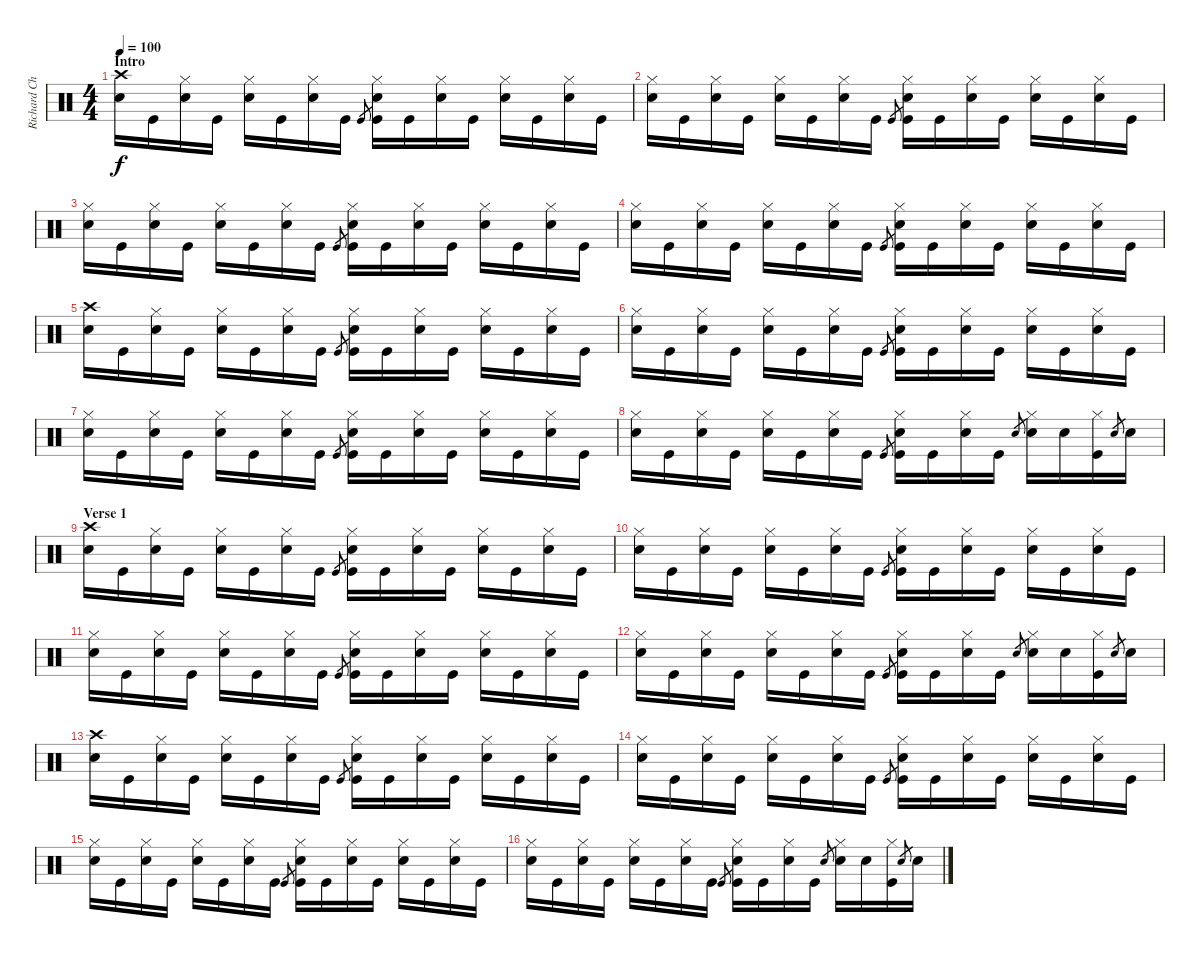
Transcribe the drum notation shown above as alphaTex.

\track ("Richard Chadwick - Drums" "Richard Ch") {instrument percussion}
\staff {score}
\articulation defaults
\ts (4 4)
\section ("" "Intro")
\tempo 100
\clef neutral
\ks c
("Crash high (hit)" "Snare (hit) 2").16{dy f} "Kick (hit)".16 ("Hi-Hat (closed)" "Snare (hit) 2").16 "Kick (hit)".16 ("Hi-Hat (closed)" "Snare (hit) 2").16 "Kick (hit)".16 ("Hi-Hat (closed)" "Snare (hit) 2").16 "Kick (hit)".16 "Kick (hit)".8{gr} ("Hi-Hat (closed)" "Snare (hit) 2" "Kick (hit)").16 "Kick (hit)".16 ("Hi-Hat (closed)" "Snare (hit) 2").16 "Kick (hit)".16 ("Hi-Hat (closed)" "Snare (hit) 2").16 "Kick (hit)".16 ("Hi-Hat (closed)" "Snare (hit) 2").16 "Kick (hit)".16 |
("Hi-Hat (closed)" "Snare (hit) 2").16 "Kick (hit)".16 ("Hi-Hat (closed)" "Snare (hit) 2").16 "Kick (hit)".16 ("Hi-Hat (closed)" "Snare (hit) 2").16 "Kick (hit)".16 ("Hi-Hat (closed)" "Snare (hit) 2").16 "Kick (hit)".16 "Kick (hit)".8{gr} ("Hi-Hat (closed)" "Snare (hit) 2" "Kick (hit)").16 "Kick (hit)".16 ("Hi-Hat (closed)" "Snare (hit) 2").16 "Kick (hit)".16 ("Hi-Hat (closed)" "Snare (hit) 2").16 "Kick (hit)".16 ("Hi-Hat (closed)" "Snare (hit) 2").16 "Kick (hit)".16 |
("Hi-Hat (closed)" "Snare (hit) 2").16 "Kick (hit)".16 ("Hi-Hat (closed)" "Snare (hit) 2").16 "Kick (hit)".16 ("Hi-Hat (closed)" "Snare (hit) 2").16 "Kick (hit)".16 ("Hi-Hat (closed)" "Snare (hit) 2").16 "Kick (hit)".16 "Kick (hit)".8{gr} ("Hi-Hat (closed)" "Snare (hit) 2" "Kick (hit)").16 "Kick (hit)".16 ("Hi-Hat (closed)" "Snare (hit) 2").16 "Kick (hit)".16 ("Hi-Hat (closed)" "Snare (hit) 2").16 "Kick (hit)".16 ("Hi-Hat (closed)" "Snare (hit) 2").16 "Kick (hit)".16 |
("Hi-Hat (closed)" "Snare (hit) 2").16 "Kick (hit)".16 ("Hi-Hat (closed)" "Snare (hit) 2").16 "Kick (hit)".16 ("Hi-Hat (closed)" "Snare (hit) 2").16 "Kick (hit)".16 ("Hi-Hat (closed)" "Snare (hit) 2").16 "Kick (hit)".16 "Kick (hit)".8{gr} ("Hi-Hat (closed)" "Snare (hit) 2" "Kick (hit)").16 "Kick (hit)".16 ("Hi-Hat (closed)" "Snare (hit) 2").16 "Kick (hit)".16 ("Hi-Hat (closed)" "Snare (hit) 2").16 "Kick (hit)".16 ("Hi-Hat (closed)" "Snare (hit) 2").16 "Kick (hit)".16 |
("Crash high (hit)" "Snare (hit) 2").16 "Kick (hit)".16 ("Hi-Hat (closed)" "Snare (hit) 2").16 "Kick (hit)".16 ("Hi-Hat (closed)" "Snare (hit) 2").16 "Kick (hit)".16 ("Hi-Hat (closed)" "Snare (hit) 2").16 "Kick (hit)".16 "Kick (hit)".8{gr} ("Hi-Hat (closed)" "Snare (hit) 2" "Kick (hit)").16 "Kick (hit)".16 ("Hi-Hat (closed)" "Snare (hit) 2").16 "Kick (hit)".16 ("Hi-Hat (closed)" "Snare (hit) 2").16 "Kick (hit)".16 ("Hi-Hat (closed)" "Snare (hit) 2").16 "Kick (hit)".16 |
("Hi-Hat (closed)" "Snare (hit) 2").16 "Kick (hit)".16 ("Hi-Hat (closed)" "Snare (hit) 2").16 "Kick (hit)".16 ("Hi-Hat (closed)" "Snare (hit) 2").16 "Kick (hit)".16 ("Hi-Hat (closed)" "Snare (hit) 2").16 "Kick (hit)".16 "Kick (hit)".8{gr} ("Hi-Hat (closed)" "Snare (hit) 2" "Kick (hit)").16 "Kick (hit)".16 ("Hi-Hat (closed)" "Snare (hit) 2").16 "Kick (hit)".16 ("Hi-Hat (closed)" "Snare (hit) 2").16 "Kick (hit)".16 ("Hi-Hat (closed)" "Snare (hit) 2").16 "Kick (hit)".16 |
("Hi-Hat (closed)" "Snare (hit) 2").16 "Kick (hit)".16 ("Hi-Hat (closed)" "Snare (hit) 2").16 "Kick (hit)".16 ("Hi-Hat (closed)" "Snare (hit) 2").16 "Kick (hit)".16 ("Hi-Hat (closed)" "Snare (hit) 2").16 "Kick (hit)".16 "Kick (hit)".8{gr} ("Hi-Hat (closed)" "Snare (hit) 2" "Kick (hit)").16 "Kick (hit)".16 ("Hi-Hat (closed)" "Snare (hit) 2").16 "Kick (hit)".16 ("Hi-Hat (closed)" "Snare (hit) 2").16 "Kick (hit)".16 ("Hi-Hat (closed)" "Snare (hit) 2").16 "Kick (hit)".16 |
("Hi-Hat (closed)" "Snare (hit) 2").16 "Kick (hit)".16 ("Hi-Hat (closed)" "Snare (hit) 2").16 "Kick (hit)".16 ("Hi-Hat (closed)" "Snare (hit) 2").16 "Kick (hit)".16 ("Hi-Hat (closed)" "Snare (hit) 2").16 "Kick (hit)".16 "Kick (hit)".8{gr} ("Hi-Hat (closed)" "Snare (hit) 2" "Kick (hit)").16 "Kick (hit)".16 ("Hi-Hat (closed)" "Snare (hit) 2").16 "Kick (hit)".16 "Snare (hit) 2".8{gr} ("Hi-Hat (closed)" "Snare (hit) 2").16 "Snare (hit) 2".16 ("Hi-Hat (closed)" "Kick (hit)").16 "Snare (hit) 2".8{gr} "Snare (hit) 2".16 |
\section ("" "Verse 1")
("Crash high (hit)" "Snare (hit) 2").16 "Kick (hit)".16 ("Hi-Hat (closed)" "Snare (hit) 2").16 "Kick (hit)".16 ("Hi-Hat (closed)" "Snare (hit) 2").16 "Kick (hit)".16 ("Hi-Hat (closed)" "Snare (hit) 2").16 "Kick (hit)".16 "Kick (hit)".8{gr} ("Hi-Hat (closed)" "Snare (hit) 2" "Kick (hit)").16 "Kick (hit)".16 ("Hi-Hat (closed)" "Snare (hit) 2").16 "Kick (hit)".16 ("Hi-Hat (closed)" "Snare (hit) 2").16 "Kick (hit)".16 ("Hi-Hat (closed)" "Snare (hit) 2").16 "Kick (hit)".16 |
("Hi-Hat (closed)" "Snare (hit) 2").16 "Kick (hit)".16 ("Hi-Hat (closed)" "Snare (hit) 2").16 "Kick (hit)".16 ("Hi-Hat (closed)" "Snare (hit) 2").16 "Kick (hit)".16 ("Hi-Hat (closed)" "Snare (hit) 2").16 "Kick (hit)".16 "Kick (hit)".8{gr} ("Hi-Hat (closed)" "Snare (hit) 2" "Kick (hit)").16 "Kick (hit)".16 ("Hi-Hat (closed)" "Snare (hit) 2").16 "Kick (hit)".16 ("Hi-Hat (closed)" "Snare (hit) 2").16 "Kick (hit)".16 ("Hi-Hat (closed)" "Snare (hit) 2").16 "Kick (hit)".16 |
("Hi-Hat (closed)" "Snare (hit) 2").16 "Kick (hit)".16 ("Hi-Hat (closed)" "Snare (hit) 2").16 "Kick (hit)".16 ("Hi-Hat (closed)" "Snare (hit) 2").16 "Kick (hit)".16 ("Hi-Hat (closed)" "Snare (hit) 2").16 "Kick (hit)".16 "Kick (hit)".8{gr} ("Hi-Hat (closed)" "Snare (hit) 2" "Kick (hit)").16 "Kick (hit)".16 ("Hi-Hat (closed)" "Snare (hit) 2").16 "Kick (hit)".16 ("Hi-Hat (closed)" "Snare (hit) 2").16 "Kick (hit)".16 ("Hi-Hat (closed)" "Snare (hit) 2").16 "Kick (hit)".16 |
("Hi-Hat (closed)" "Snare (hit) 2").16 "Kick (hit)".16 ("Hi-Hat (closed)" "Snare (hit) 2").16 "Kick (hit)".16 ("Hi-Hat (closed)" "Snare (hit) 2").16 "Kick (hit)".16 ("Hi-Hat (closed)" "Snare (hit) 2").16 "Kick (hit)".16 "Kick (hit)".8{gr} ("Hi-Hat (closed)" "Snare (hit) 2" "Kick (hit)").16 "Kick (hit)".16 ("Hi-Hat (closed)" "Snare (hit) 2").16 "Kick (hit)".16 "Snare (hit) 2".8{gr} ("Hi-Hat (closed)" "Snare (hit) 2").16 "Snare (hit) 2".16 ("Hi-Hat (closed)" "Kick (hit)").16 "Snare (hit) 2".8{gr} "Snare (hit) 2".16 |
("Crash high (hit)" "Snare (hit) 2").16 "Kick (hit)".16 ("Hi-Hat (closed)" "Snare (hit) 2").16 "Kick (hit)".16 ("Hi-Hat (closed)" "Snare (hit) 2").16 "Kick (hit)".16 ("Hi-Hat (closed)" "Snare (hit) 2").16 "Kick (hit)".16 "Kick (hit)".8{gr} ("Hi-Hat (closed)" "Snare (hit) 2" "Kick (hit)").16 "Kick (hit)".16 ("Hi-Hat (closed)" "Snare (hit) 2").16 "Kick (hit)".16 ("Hi-Hat (closed)" "Snare (hit) 2").16 "Kick (hit)".16 ("Hi-Hat (closed)" "Snare (hit) 2").16 "Kick (hit)".16 |
("Hi-Hat (closed)" "Snare (hit) 2").16 "Kick (hit)".16 ("Hi-Hat (closed)" "Snare (hit) 2").16 "Kick (hit)".16 ("Hi-Hat (closed)" "Snare (hit) 2").16 "Kick (hit)".16 ("Hi-Hat (closed)" "Snare (hit) 2").16 "Kick (hit)".16 "Kick (hit)".8{gr} ("Hi-Hat (closed)" "Snare (hit) 2" "Kick (hit)").16 "Kick (hit)".16 ("Hi-Hat (closed)" "Snare (hit) 2").16 "Kick (hit)".16 ("Hi-Hat (closed)" "Snare (hit) 2").16 "Kick (hit)".16 ("Hi-Hat (closed)" "Snare (hit) 2").16 "Kick (hit)".16 |
("Hi-Hat (closed)" "Snare (hit) 2").16 "Kick (hit)".16 ("Hi-Hat (closed)" "Snare (hit) 2").16 "Kick (hit)".16 ("Hi-Hat (closed)" "Snare (hit) 2").16 "Kick (hit)".16 ("Hi-Hat (closed)" "Snare (hit) 2").16 "Kick (hit)".16 "Kick (hit)".8{gr} ("Hi-Hat (closed)" "Snare (hit) 2" "Kick (hit)").16 "Kick (hit)".16 ("Hi-Hat (closed)" "Snare (hit) 2").16 "Kick (hit)".16 ("Hi-Hat (closed)" "Snare (hit) 2").16 "Kick (hit)".16 ("Hi-Hat (closed)" "Snare (hit) 2").16 "Kick (hit)".16 |
("Hi-Hat (closed)" "Snare (hit) 2").16 "Kick (hit)".16 ("Hi-Hat (closed)" "Snare (hit) 2").16 "Kick (hit)".16 ("Hi-Hat (closed)" "Snare (hit) 2").16 "Kick (hit)".16 ("Hi-Hat (closed)" "Snare (hit) 2").16 "Kick (hit)".16 "Kick (hit)".8{gr} ("Hi-Hat (closed)" "Snare (hit) 2" "Kick (hit)").16 "Kick (hit)".16 ("Hi-Hat (closed)" "Snare (hit) 2").16 "Kick (hit)".16 "Snare (hit) 2".8{gr} ("Hi-Hat (closed)" "Snare (hit) 2").16 "Snare (hit) 2".16 ("Hi-Hat (closed)" "Kick (hit)").16 "Snare (hit) 2".8{gr} "Snare (hit) 2".16
